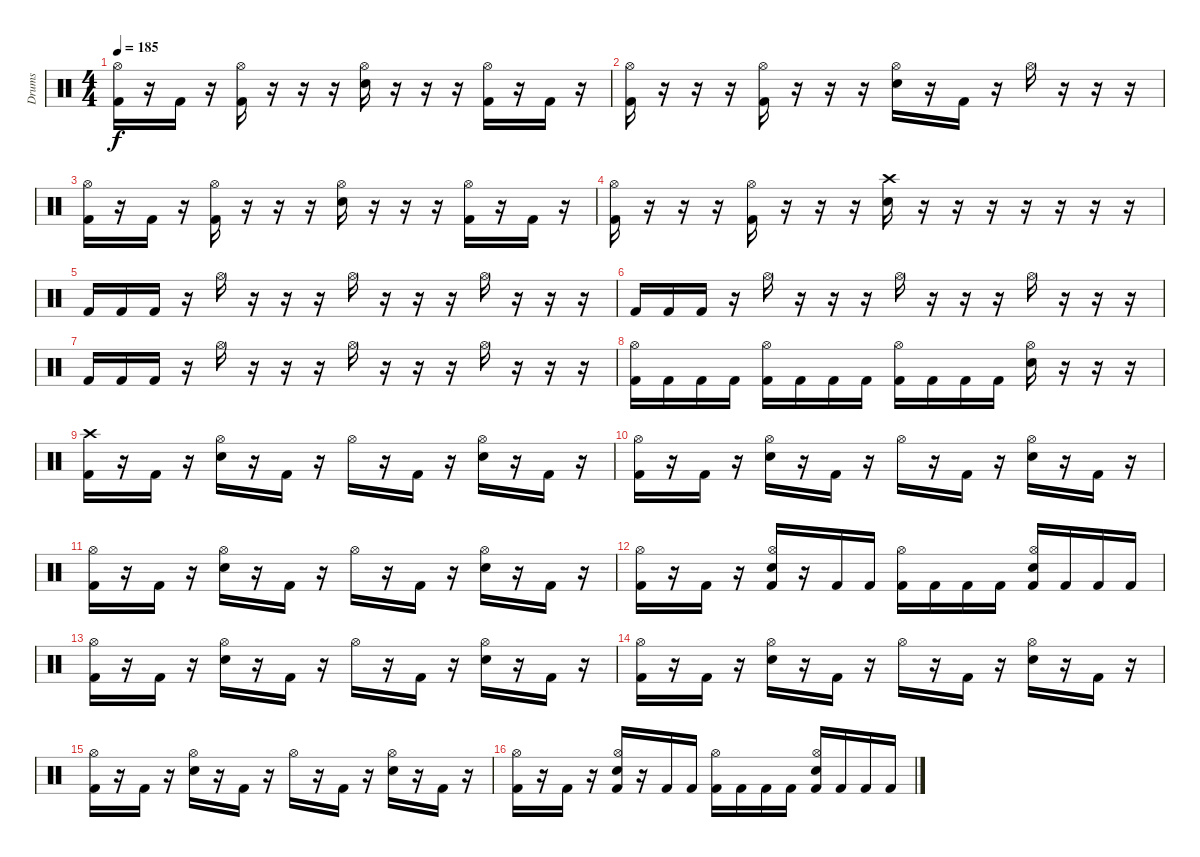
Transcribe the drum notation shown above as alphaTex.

\track ("Drums" "Drums") {instrument percussion}
\staff {score}
\articulation defaults
\ts (4 4)
\tempo 185
\clef neutral
\ks c
("Kick (hit) 2" "Hi-Hat (open)").16{dy f} r.16 "Kick (hit) 2".16 r.16 ("Kick (hit) 2" "Hi-Hat (open)").16 r.16 r.16 r.16 ("Electric Snare (hit)" "Hi-Hat (open)").16 r.16 r.16 r.16 ("Kick (hit) 2" "Hi-Hat (open)").16 r.16 "Kick (hit) 2".16 r.16 |
("Kick (hit) 2" "Hi-Hat (open)").16 r.16 r.16 r.16 ("Kick (hit) 2" "Hi-Hat (open)").16 r.16 r.16 r.16 ("Electric Snare (hit)" "Hi-Hat (open)").16 r.16 "Kick (hit) 2".16 r.16 "Hi-Hat (open)".16 r.16 r.16 r.16 |
("Kick (hit) 2" "Hi-Hat (open)").16 r.16 "Kick (hit) 2".16 r.16 ("Kick (hit) 2" "Hi-Hat (open)").16 r.16 r.16 r.16 ("Electric Snare (hit)" "Hi-Hat (open)").16 r.16 r.16 r.16 ("Kick (hit) 2" "Hi-Hat (open)").16 r.16 "Kick (hit) 2".16 r.16 |
("Kick (hit) 2" "Hi-Hat (open)").16 r.16 r.16 r.16 ("Kick (hit) 2" "Hi-Hat (open)").16 r.16 r.16 r.16 ("Electric Snare (hit)" "Crash high (hit)").16 r.16 r.16 r.16 r.16 r.16 r.16 r.16 |
"Kick (hit) 2".16 "Kick (hit) 2".16 "Kick (hit) 2".16 r.16 "Hi-Hat (open)".16 r.16 r.16 r.16 "Hi-Hat (open)".16 r.16 r.16 r.16 "Hi-Hat (open)".16 r.16 r.16 r.16 |
"Kick (hit) 2".16 "Kick (hit) 2".16 "Kick (hit) 2".16 r.16 "Hi-Hat (open)".16 r.16 r.16 r.16 "Hi-Hat (open)".16 r.16 r.16 r.16 "Hi-Hat (open)".16 r.16 r.16 r.16 |
"Kick (hit) 2".16 "Kick (hit) 2".16 "Kick (hit) 2".16 r.16 "Hi-Hat (open)".16 r.16 r.16 r.16 "Hi-Hat (open)".16 r.16 r.16 r.16 "Hi-Hat (open)".16 r.16 r.16 r.16 |
("Kick (hit) 2" "Hi-Hat (open)").16 "Kick (hit) 2".16 "Kick (hit) 2".16 "Kick (hit) 2".16 ("Kick (hit) 2" "Hi-Hat (open)").16 "Kick (hit) 2".16 "Kick (hit) 2".16 "Kick (hit) 2".16 ("Kick (hit) 2" "Hi-Hat (open)").16 "Kick (hit) 2".16 "Kick (hit) 2".16 "Kick (hit) 2".16 ("Electric Snare (hit)" "Hi-Hat (open)").16 r.16 r.16 r.16 |
("Kick (hit) 2" "Crash high (hit)").16 r.16 "Kick (hit) 2".16 r.16 ("Electric Snare (hit)" "Hi-Hat (open)").16 r.16 "Kick (hit) 2".16 r.16 "Hi-Hat (open)".16 r.16 "Kick (hit) 2".16 r.16 ("Electric Snare (hit)" "Hi-Hat (open)").16 r.16 "Kick (hit) 2".16 r.16 |
("Kick (hit) 2" "Hi-Hat (open)").16 r.16 "Kick (hit) 2".16 r.16 ("Electric Snare (hit)" "Hi-Hat (open)").16 r.16 "Kick (hit) 2".16 r.16 "Hi-Hat (open)".16 r.16 "Kick (hit) 2".16 r.16 ("Electric Snare (hit)" "Hi-Hat (open)").16 r.16 "Kick (hit) 2".16 r.16 |
("Kick (hit) 2" "Hi-Hat (open)").16 r.16 "Kick (hit) 2".16 r.16 ("Electric Snare (hit)" "Hi-Hat (open)").16 r.16 "Kick (hit) 2".16 r.16 "Hi-Hat (open)".16 r.16 "Kick (hit) 2".16 r.16 ("Electric Snare (hit)" "Hi-Hat (open)").16 r.16 "Kick (hit) 2".16 r.16 |
("Kick (hit) 2" "Hi-Hat (open)").16 r.16 "Kick (hit) 2".16 r.16 ("Kick (hit) 2" "Electric Snare (hit)" "Hi-Hat (open)").16 r.16 "Kick (hit) 2".16 "Kick (hit) 2".16 ("Kick (hit) 2" "Hi-Hat (open)").16 "Kick (hit) 2".16 "Kick (hit) 2".16 "Kick (hit) 2".16 ("Kick (hit) 2" "Electric Snare (hit)" "Hi-Hat (open)").16 "Kick (hit) 2".16 "Kick (hit) 2".16 "Kick (hit) 2".16 |
("Kick (hit) 2" "Hi-Hat (open)").16 r.16 "Kick (hit) 2".16 r.16 ("Electric Snare (hit)" "Hi-Hat (open)").16 r.16 "Kick (hit) 2".16 r.16 "Hi-Hat (open)".16 r.16 "Kick (hit) 2".16 r.16 ("Electric Snare (hit)" "Hi-Hat (open)").16 r.16 "Kick (hit) 2".16 r.16 |
("Kick (hit) 2" "Hi-Hat (open)").16 r.16 "Kick (hit) 2".16 r.16 ("Electric Snare (hit)" "Hi-Hat (open)").16 r.16 "Kick (hit) 2".16 r.16 "Hi-Hat (open)".16 r.16 "Kick (hit) 2".16 r.16 ("Electric Snare (hit)" "Hi-Hat (open)").16 r.16 "Kick (hit) 2".16 r.16 |
("Kick (hit) 2" "Hi-Hat (open)").16 r.16 "Kick (hit) 2".16 r.16 ("Electric Snare (hit)" "Hi-Hat (open)").16 r.16 "Kick (hit) 2".16 r.16 "Hi-Hat (open)".16 r.16 "Kick (hit) 2".16 r.16 ("Electric Snare (hit)" "Hi-Hat (open)").16 r.16 "Kick (hit) 2".16 r.16 |
("Kick (hit) 2" "Hi-Hat (open)").16 r.16 "Kick (hit) 2".16 r.16 ("Kick (hit) 2" "Electric Snare (hit)" "Hi-Hat (open)").16 r.16 "Kick (hit) 2".16 "Kick (hit) 2".16 ("Kick (hit) 2" "Hi-Hat (open)").16 "Kick (hit) 2".16 "Kick (hit) 2".16 "Kick (hit) 2".16 ("Kick (hit) 2" "Electric Snare (hit)" "Hi-Hat (open)").16 "Kick (hit) 2".16 "Kick (hit) 2".16 "Kick (hit) 2".16
